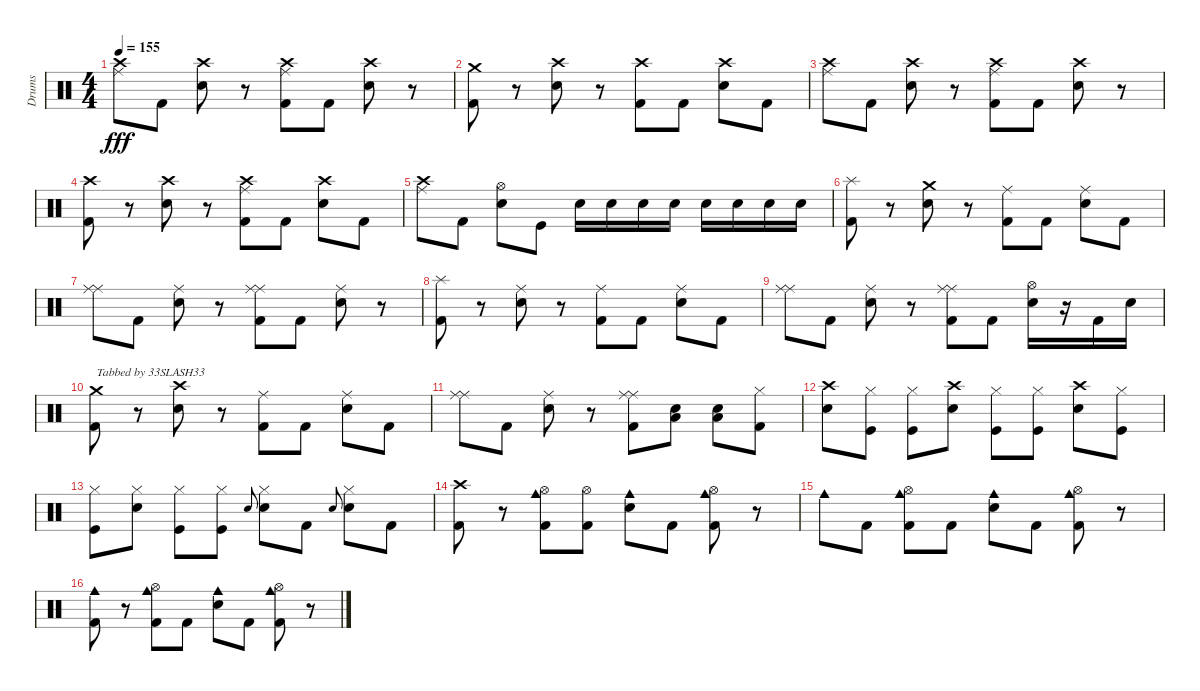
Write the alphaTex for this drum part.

\track ("Drums" "Drums") {instrument percussion}
\staff {score}
\articulation defaults
\ts (4 4)
\tempo 155
\clef neutral
\ks c
("Crash high (hit)" "Ride (middle)").8{dy fff} "Kick (hit) 2".8 ("Crash high (hit)" "Snare (hit) 2").8 r.8 ("Crash high (hit)" "Ride (middle)" "Kick (hit) 2").8 "Kick (hit) 2".8 ("Crash high (hit)" "Snare (hit) 2").8 r.8 |
("Crash medium (hit)" "Kick (hit) 2").8 r.8 ("Crash high (hit)" "Snare (hit) 2").8 r.8 ("Crash high (hit)" "Kick (hit) 2").8 "Kick (hit) 2".8 ("Crash high (hit)" "Snare (hit) 2").8 "Kick (hit) 2".8 |
("Crash high (hit)" "Ride (middle)").8 "Kick (hit) 2".8 ("Crash high (hit)" "Snare (hit) 2").8 r.8 ("Crash high (hit)" "Ride (middle)" "Kick (hit) 2").8 "Kick (hit) 2".8 ("Crash high (hit)" "Snare (hit) 2").8 r.8 |
("Crash high (hit)" "Kick (hit) 2").8 r.8 ("Crash high (hit)" "Snare (hit) 2").8 r.8 ("Crash high (hit)" "Ride (middle)" "Kick (hit) 2").8 "Kick (hit) 2".8 ("Crash high (hit)" "Snare (hit) 2").8 "Kick (hit) 2".8 |
("Crash high (hit)" "Ride (middle)").8 "Kick (hit) 2".8 ("Hi-Hat (open)" "Snare (hit) 2").8 "Kick (hit)".8 "Snare (hit) 2".16 "Snare (hit) 2".16 "Snare (hit) 2".16 "Snare (hit) 2".16 "Snare (hit) 2".16 "Snare (hit) 2".16 "Snare (hit) 2".16 "Snare (hit) 2".16 |
("Splash (hit)" "Kick (hit) 2").8 r.8 ("Crash medium (hit)" "Snare (hit) 2").8 r.8 ("Ride (middle)" "Kick (hit) 2").8 "Kick (hit) 2".8 ("Ride (middle)" "Snare (hit) 2").8 "Kick (hit) 2".8 |
("Ride (middle)" "Ride (middle)").8 "Kick (hit) 2".8 ("Ride (middle)" "Snare (hit) 2").8 r.8 ("Ride (middle)" "Ride (middle)" "Kick (hit) 2").8 "Kick (hit) 2".8 ("Ride (middle)" "Snare (hit) 2").8 r.8 |
("Splash (hit)" "Kick (hit) 2").8 r.8 ("Ride (middle)" "Snare (hit) 2").8 r.8 ("Ride (middle)" "Kick (hit) 2").8 "Kick (hit) 2".8 ("Ride (middle)" "Snare (hit) 2").8 "Kick (hit) 2".8 |
("Ride (middle)" "Ride (middle)").8 "Kick (hit) 2".8 ("Ride (middle)" "Snare (hit) 2").8 r.8 ("Ride (middle)" "Ride (middle)" "Kick (hit) 2").8 "Kick (hit) 2".8 ("Hi-Hat (open)" "Snare (hit) 2").16 r.16 "Kick (hit) 2".16 "Snare (hit) 2".16 |
("Crash medium (hit)" "Kick (hit) 2").8{txt "Tabbed by 33SLASH33"} r.8 ("Crash high (hit)" "Snare (hit) 2").8 r.8 ("Ride (middle)" "Kick (hit) 2").8 "Kick (hit) 2".8 ("Ride (middle)" "Snare (hit) 2").8 "Kick (hit) 2".8 |
("Ride (middle)" "Ride (middle)").8 "Kick (hit) 2".8 ("Ride (middle)" "Snare (hit) 2").8 r.8 ("Ride (middle)" "Ride (middle)" "Kick (hit) 2").8 ("Snare (hit) 2" "Low Floor Tom (hit)").8 ("Snare (hit) 2" "Low Floor Tom (hit)").8 ("Hi-Hat (closed)" "Kick (hit) 2").8 |
("Crash high (hit)" "Snare (hit) 2").8 ("Hi-Hat (closed)" "Kick (hit)").8 ("Hi-Hat (closed)" "Kick (hit)").8 ("Crash high (hit)" "Snare (hit) 2").8 ("Hi-Hat (closed)" "Kick (hit)").8 ("Hi-Hat (closed)" "Kick (hit)").8 ("Crash high (hit)" "Snare (hit) 2").8 ("Hi-Hat (closed)" "Kick (hit)").8 |
("Hi-Hat (closed)" "Kick (hit)").8 ("Hi-Hat (closed)" "Snare (hit) 2").8 ("Hi-Hat (closed)" "Kick (hit)").8 ("Hi-Hat (closed)" "Kick (hit)").8 "Snare (hit) 2".8{gr onbeat} ("Hi-Hat (closed)" "Snare (hit) 2").8 "Kick (hit) 2".8 "Snare (hit) 2".8{gr onbeat} ("Hi-Hat (closed)" "Snare (hit) 2").8 "Kick (hit) 2".8 |
("Crash high (hit)" "Kick (hit) 2").8 r.8 ("Hi-Hat (open)" "Cowbell medium (hit)" "Kick (hit) 2").8 ("Hi-Hat (open)" "Kick (hit) 2").8 ("Snare (hit) 2" "Cowbell medium (hit)").8 "Kick (hit) 2".8 ("Hi-Hat (open)" "Cowbell medium (hit)" "Kick (hit) 2").8 r.8 |
"Cowbell medium (hit)".8 "Kick (hit) 2".8 ("Hi-Hat (open)" "Cowbell medium (hit)" "Kick (hit) 2").8 "Kick (hit) 2".8 ("Snare (hit) 2" "Cowbell medium (hit)").8 "Kick (hit) 2".8 ("Hi-Hat (open)" "Cowbell medium (hit)" "Kick (hit) 2").8 r.8 |
("Cowbell medium (hit)" "Kick (hit) 2").8 r.8 ("Hi-Hat (open)" "Cowbell medium (hit)" "Kick (hit) 2").8 "Kick (hit) 2".8 ("Snare (hit) 2" "Cowbell medium (hit)").8 "Kick (hit) 2".8 ("Hi-Hat (open)" "Cowbell medium (hit)" "Kick (hit) 2").8 r.8
